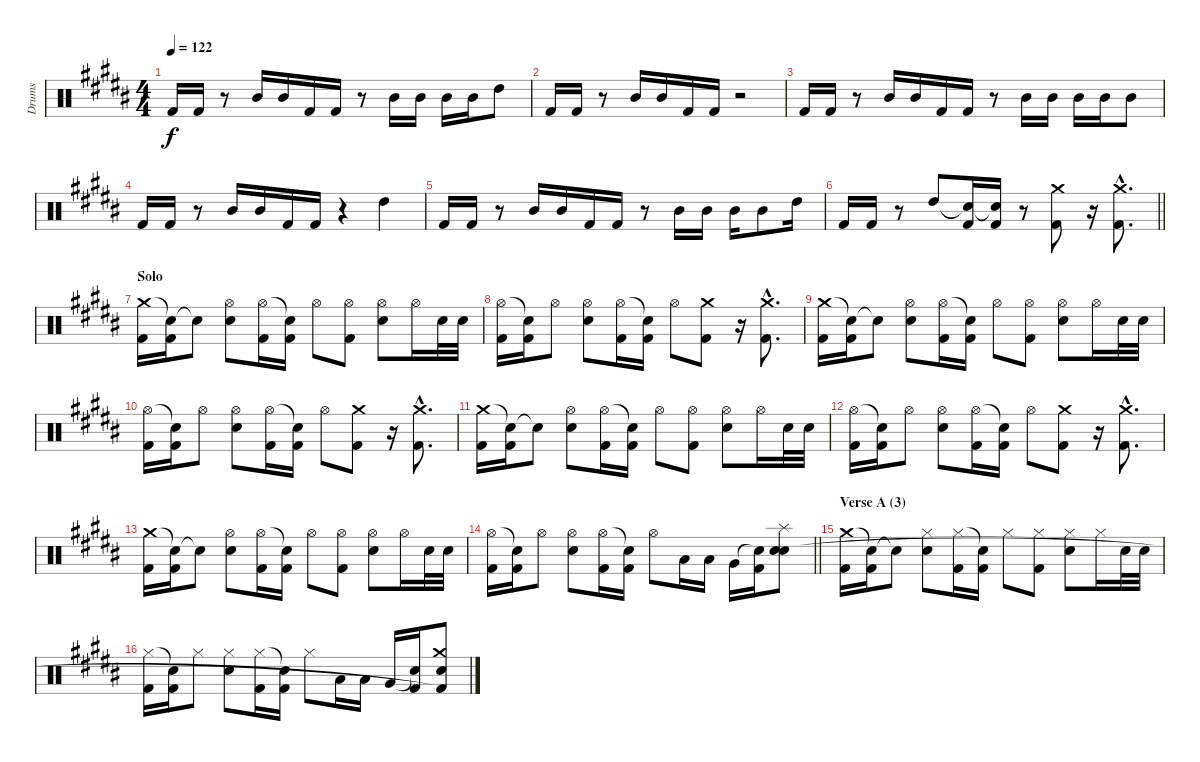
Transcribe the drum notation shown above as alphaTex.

\track ("Drums" "Drums") {instrument percussion}
\staff {score}
\articulation defaults
\ts (4 4)
\tempo 122
\clef neutral
\ks g#minor "Kick (hit) 2".16{dy f} "Kick (hit) 2".16
r.8 "Mid Tom (hit)".16 "Mid Tom (hit)".16 "Kick (hit) 2".16 "Kick (hit) 2".16 r.8 "Mid Tom (hit)".16 "Mid Tom (hit)".16 "Mid Tom (hit)".16 "Mid Tom (hit)".16 "High Tom (hit)".8 |
"Kick (hit) 2".16 "Kick (hit) 2".16 r.8 "Mid Tom (hit)".16 "Mid Tom (hit)".16 "Kick (hit) 2".16 "Kick (hit) 2".16 r.2 |
"Kick (hit) 2".16 "Kick (hit) 2".16 r.8 "Mid Tom (hit)".16 "Mid Tom (hit)".16 "Kick (hit) 2".16 "Kick (hit) 2".16 r.8 "Mid Tom (hit)".16 "Mid Tom (hit)".16 "Mid Tom (hit)".16 "Mid Tom (hit)".16 "Mid Tom (hit)".8 |
"Kick (hit) 2".16 "Kick (hit) 2".16 r.8 "Mid Tom (hit)".16 "Mid Tom (hit)".16 "Kick (hit) 2".16 "Kick (hit) 2".16 r.4 "High Tom (hit)".4 |
"Kick (hit) 2".16 "Kick (hit) 2".16 r.8 "Mid Tom (hit)".16 "Mid Tom (hit)".16 "Kick (hit) 2".16 "Kick (hit) 2".16 r.8 "Mid Tom (hit)".16 "Mid Tom (hit)".16 "Mid Tom (hit)".16 "Mid Tom (hit)".8 "High Tom (hit)".16 |
\barLineRight lightlight "Kick (hit) 2".16 "Kick (hit) 2".16
r.8 "High Tom (hit)".8 ("Snare (hit)"{t} "Kick (hit) 2").16 ("Snare (hit)"{t} "Kick (hit) 2").16 r.8 ("Crash medium (hit)" "Kick (hit) 2").8 r.16 ("Crash medium (hit)"{hac} "Kick (hit) 2"{hac}).8{d} |
\section ("" "Solo")
("Crash medium (hit)" "Kick (hit) 2").16 ("Snare (hit)"{t} "Kick (hit) 2").16 "Snare (hit)"{t}.8 ("Hi-Hat (open)" "Electric Snare (hit)").8 ("Hi-Hat (open)" "Kick (hit) 2").16 ("Snare (hit)"{t} "Kick (hit) 2").16 "Hi-Hat (open)".8 ("Hi-Hat (open)" "Kick (hit) 2").8 ("Hi-Hat (open)" "Electric Snare (hit)").8 "Hi-Hat (open)".16 "Electric Snare (hit)".32 "Electric Snare (hit)".32 |
("Hi-Hat (open)" "Kick (hit) 2").16 ("Snare (hit)"{t} "Kick (hit) 2").16 "Hi-Hat (open)".8 ("Hi-Hat (open)" "Electric Snare (hit)").8 ("Hi-Hat (open)" "Kick (hit) 2").16 ("Snare (hit)"{t} "Kick (hit) 2").16 "Hi-Hat (open)".8 ("Crash medium (hit)" "Kick (hit) 2").8 r.16 ("Crash medium (hit)"{hac} "Kick (hit) 2"{hac}).8{d} |
("Crash medium (hit)" "Kick (hit) 2").16 ("Snare (hit)"{t} "Kick (hit) 2").16 "Snare (hit)"{t}.8 ("Hi-Hat (open)" "Electric Snare (hit)").8 ("Hi-Hat (open)" "Kick (hit) 2").16 ("Snare (hit)"{t} "Kick (hit) 2").16 "Hi-Hat (open)".8 ("Hi-Hat (open)" "Kick (hit) 2").8 ("Hi-Hat (open)" "Electric Snare (hit)").8 "Hi-Hat (open)".16 "Electric Snare (hit)".32 "Electric Snare (hit)".32 |
("Hi-Hat (open)" "Kick (hit) 2").16 ("Snare (hit)"{t} "Kick (hit) 2").16 "Hi-Hat (open)".8 ("Hi-Hat (open)" "Electric Snare (hit)").8 ("Hi-Hat (open)" "Kick (hit) 2").16 ("Snare (hit)"{t} "Kick (hit) 2").16 "Hi-Hat (open)".8 ("Crash medium (hit)" "Kick (hit) 2").8 r.16 ("Crash medium (hit)"{hac} "Kick (hit) 2"{hac}).8{d} |
("Crash medium (hit)" "Kick (hit) 2").16 ("Snare (hit)"{t} "Kick (hit) 2").16 "Snare (hit)"{t}.8 ("Hi-Hat (open)" "Electric Snare (hit)").8 ("Hi-Hat (open)" "Kick (hit) 2").16 ("Snare (hit)"{t} "Kick (hit) 2").16 "Hi-Hat (open)".8 ("Hi-Hat (open)" "Kick (hit) 2").8 ("Hi-Hat (open)" "Electric Snare (hit)").8 "Hi-Hat (open)".16 "Electric Snare (hit)".32 "Electric Snare (hit)".32 |
("Hi-Hat (open)" "Kick (hit) 2").16 ("Snare (hit)"{t} "Kick (hit) 2").16 "Hi-Hat (open)".8 ("Hi-Hat (open)" "Electric Snare (hit)").8 ("Hi-Hat (open)" "Kick (hit) 2").16 ("Snare (hit)"{t} "Kick (hit) 2").16 "Hi-Hat (open)".8 ("Crash medium (hit)" "Kick (hit) 2").8 r.16 ("Crash medium (hit)"{hac} "Kick (hit) 2"{hac}).8{d} |
("Crash medium (hit)" "Kick (hit) 2").16 ("Snare (hit)"{t} "Kick (hit) 2").16 "Snare (hit)"{t}.8 ("Hi-Hat (open)" "Electric Snare (hit)").8 ("Hi-Hat (open)" "Kick (hit) 2").16 ("Snare (hit)"{t} "Kick (hit) 2").16 "Hi-Hat (open)".8 ("Hi-Hat (open)" "Kick (hit) 2").8 ("Hi-Hat (open)" "Electric Snare (hit)").8 "Hi-Hat (open)".16 "Electric Snare (hit)".32 "Electric Snare (hit)".32 |
\barLineRight lightlight
("Hi-Hat (open)" "Kick (hit) 2").16 ("Snare (hit)"{t} "Kick (hit) 2").16 "Hi-Hat (open)".8 ("Hi-Hat (open)" "Electric Snare (hit)").8 ("Hi-Hat (open)" "Kick (hit) 2").16 ("Snare (hit)"{t} "Kick (hit) 2").16 "Hi-Hat (open)".8 "Low Tom (hit)".16 "Low Tom (hit)".16 "Very Low Tom (hit)".16 ("Snare (hit)"{t} "Kick (hit) 2").16 ("Splash (hit)" "Electric Snare (hit)" "Snare (hit)").8 |
\section ("" "Verse A (3)")
("Crash medium (hit)" "Kick (hit) 2").16 ("Snare (hit)"{t} "Kick (hit) 2").16 "Snare (hit)"{t}.8 ("Hi-Hat (closed)" "Electric Snare (hit)").8 ("Hi-Hat (closed)" "Kick (hit) 2").16 ("Snare (hit)"{t} "Kick (hit) 2").16 "Hi-Hat (closed)".8 ("Hi-Hat (closed)" "Kick (hit) 2").8 ("Hi-Hat (closed)" "Electric Snare (hit)").8 "Hi-Hat (closed)".16 "Electric Snare (hit)".32 "Electric Snare (hit)".32 |
("Hi-Hat (closed)" "Kick (hit) 2").16 ("Snare (hit)"{t} "Kick (hit) 2").16 "Hi-Hat (closed)".8 ("Hi-Hat (closed)" "Electric Snare (hit)").8 ("Hi-Hat (closed)" "Kick (hit) 2").16 ("Snare (hit)"{t} "Kick (hit) 2").16 "Hi-Hat (closed)".8 "Low Tom (hit)".16 "Low Tom (hit)".16 "Very Low Tom (hit)".16 ("Snare (hit)"{t} "Kick (hit) 2").16 ("Crash medium (hit)" "Electric Snare (hit)" "Kick (hit) 2"{t}).8
